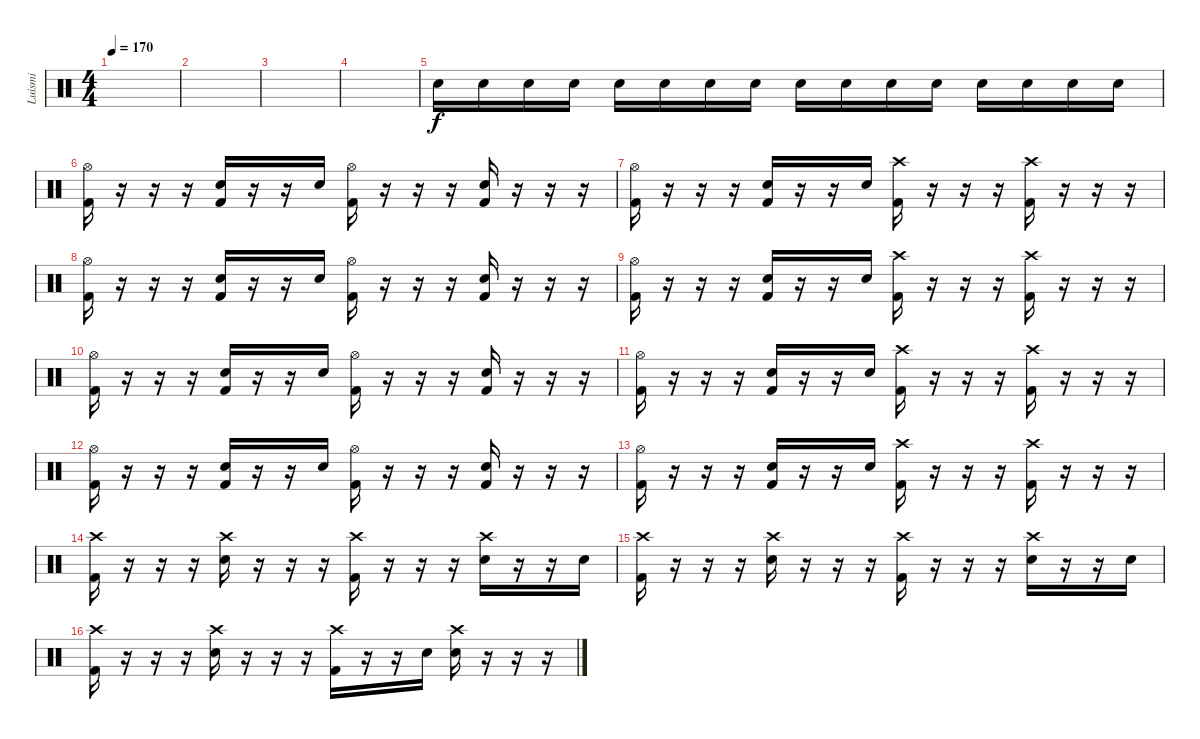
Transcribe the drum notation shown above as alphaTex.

\track ("Luismi" "Luismi") {instrument percussion}
\staff {score}
\articulation defaults
\ts (4 4)
\tempo 170
\clef neutral
\ks c
|
|
|
|
"Electric Snare (hit)".16 "Electric Snare (hit)".16 "Electric Snare (hit)".16 "Electric Snare (hit)".16 "Electric Snare (hit)".16 "Electric Snare (hit)".16 "Electric Snare (hit)".16 "Electric Snare (hit)".16 "Electric Snare (hit)".16 "Electric Snare (hit)".16 "Electric Snare (hit)".16 "Electric Snare (hit)".16 "Electric Snare (hit)".16 "Electric Snare (hit)".16 "Electric Snare (hit)".16 "Electric Snare (hit)".16 |
("Kick (hit) 2" "Hi-Hat (open)").16 r.16 r.16 r.16 ("Kick (hit) 2" "Electric Snare (hit)").16 r.16 r.16 "Electric Snare (hit)".16 ("Kick (hit) 2" "Hi-Hat (open)").16 r.16 r.16 r.16 ("Kick (hit) 2" "Electric Snare (hit)").16 r.16 r.16 r.16 |
("Kick (hit) 2" "Hi-Hat (open)").16 r.16 r.16 r.16 ("Kick (hit) 2" "Electric Snare (hit)").16 r.16 r.16 "Electric Snare (hit)".16 ("Kick (hit) 2" "Crash high (hit)").16 r.16 r.16 r.16 ("Kick (hit) 2" "Crash high (hit)").16 r.16 r.16 r.16 |
("Kick (hit) 2" "Hi-Hat (open)").16 r.16 r.16 r.16 ("Kick (hit) 2" "Electric Snare (hit)").16 r.16 r.16 "Electric Snare (hit)".16 ("Kick (hit) 2" "Hi-Hat (open)").16 r.16 r.16 r.16 ("Kick (hit) 2" "Electric Snare (hit)").16 r.16 r.16 r.16 |
("Kick (hit) 2" "Hi-Hat (open)").16 r.16 r.16 r.16 ("Kick (hit) 2" "Electric Snare (hit)").16 r.16 r.16 "Electric Snare (hit)".16 ("Kick (hit) 2" "Crash high (hit)").16 r.16 r.16 r.16 ("Kick (hit) 2" "Crash high (hit)").16 r.16 r.16 r.16 |
("Kick (hit) 2" "Hi-Hat (open)").16 r.16 r.16 r.16 ("Kick (hit) 2" "Electric Snare (hit)").16 r.16 r.16 "Electric Snare (hit)".16 ("Kick (hit) 2" "Hi-Hat (open)").16 r.16 r.16 r.16 ("Kick (hit) 2" "Electric Snare (hit)").16 r.16 r.16 r.16 |
("Kick (hit) 2" "Hi-Hat (open)").16 r.16 r.16 r.16 ("Kick (hit) 2" "Electric Snare (hit)").16 r.16 r.16 "Electric Snare (hit)".16 ("Kick (hit) 2" "Crash high (hit)").16 r.16 r.16 r.16 ("Kick (hit) 2" "Crash high (hit)").16 r.16 r.16 r.16 |
("Kick (hit) 2" "Hi-Hat (open)").16 r.16 r.16 r.16 ("Kick (hit) 2" "Electric Snare (hit)").16 r.16 r.16 "Electric Snare (hit)".16 ("Kick (hit) 2" "Hi-Hat (open)").16 r.16 r.16 r.16 ("Kick (hit) 2" "Electric Snare (hit)").16 r.16 r.16 r.16 |
("Kick (hit) 2" "Hi-Hat (open)").16 r.16 r.16 r.16 ("Kick (hit) 2" "Electric Snare (hit)").16 r.16 r.16 "Electric Snare (hit)".16 ("Kick (hit) 2" "Crash high (hit)").16 r.16 r.16 r.16 ("Kick (hit) 2" "Crash high (hit)").16 r.16 r.16 r.16 |
("Crash high (hit)" "Kick (hit) 2").16 r.16 r.16 r.16 ("Crash high (hit)" "Electric Snare (hit)").16 r.16 r.16 r.16 ("Crash high (hit)" "Kick (hit) 2").16 r.16 r.16 r.16 ("Crash high (hit)" "Electric Snare (hit)").16 r.16 r.16 "Electric Snare (hit)".16 |
("Crash high (hit)" "Kick (hit) 2").16 r.16 r.16 r.16 ("Crash high (hit)" "Electric Snare (hit)").16 r.16 r.16 r.16 ("Crash high (hit)" "Kick (hit) 2").16 r.16 r.16 r.16 ("Crash high (hit)" "Electric Snare (hit)").16 r.16 r.16 "Electric Snare (hit)".16 |
("Crash high (hit)" "Kick (hit) 2").16 r.16 r.16 r.16 ("Crash high (hit)" "Electric Snare (hit)").16 r.16 r.16 r.16 ("Crash high (hit)" "Kick (hit) 2").16 r.16 r.16 "Electric Snare (hit)".16 ("Crash high (hit)" "Electric Snare (hit)").16 r.16 r.16 r.16
